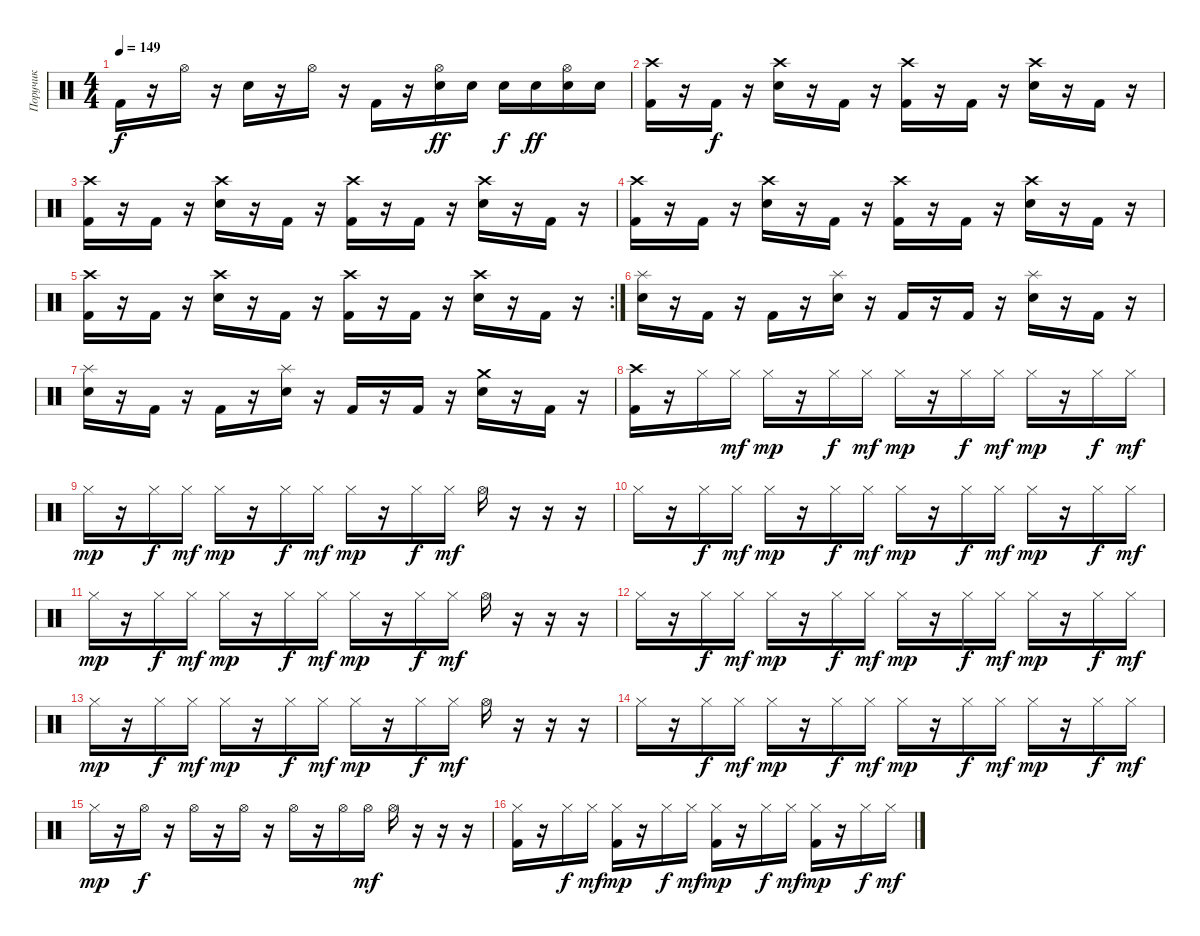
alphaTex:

\track ("Поручик" "Поручик") {instrument percussion}
\staff {score}
\articulation defaults
\ts (4 4)
\tempo 149
\clef neutral
\ks c "Kick (hit) 2".16{dy f}
r.16 "Hi-Hat (open)".16 r.16 "Snare (hit) 2".16 r.16 "Hi-Hat (open)".16 r.16 "Kick (hit) 2".16 r.16 ("Hi-Hat (open)" "Snare (hit) 2").16{dy ff} "Snare (hit) 2".16 "Snare (hit) 2".16{dy f} "Snare (hit) 2".16{dy ff} ("Hi-Hat (open)" "Snare (hit) 2").16 "Snare (hit) 2".16 |
("Crash high (hit)" "Kick (hit) 2").16 r.16 "Kick (hit) 2".16{dy f} r.16 ("Crash high (hit)" "Snare (hit) 2").16 r.16 "Kick (hit) 2".16 r.16 ("Crash high (hit)" "Kick (hit) 2").16 r.16 "Kick (hit) 2".16 r.16 ("Crash high (hit)" "Snare (hit) 2").16 r.16 "Kick (hit) 2".16 r.16 |
("Crash high (hit)" "Kick (hit) 2").16 r.16 "Kick (hit) 2".16 r.16 ("Crash high (hit)" "Snare (hit) 2").16 r.16 "Kick (hit) 2".16 r.16 ("Crash high (hit)" "Kick (hit) 2").16 r.16 "Kick (hit) 2".16 r.16 ("Crash high (hit)" "Snare (hit) 2").16 r.16 "Kick (hit) 2".16 r.16 |
("Crash high (hit)" "Kick (hit) 2").16 r.16 "Kick (hit) 2".16 r.16 ("Crash high (hit)" "Snare (hit) 2").16 r.16 "Kick (hit) 2".16 r.16 ("Crash high (hit)" "Kick (hit) 2").16 r.16 "Kick (hit) 2".16 r.16 ("Crash high (hit)" "Snare (hit) 2").16 r.16 "Kick (hit) 2".16 r.16 |
\rc 2
("Crash high (hit)" "Kick (hit) 2").16 r.16 "Kick (hit) 2".16 r.16 ("Crash high (hit)" "Snare (hit) 2").16 r.16 "Kick (hit) 2".16 r.16 ("Crash high (hit)" "Kick (hit) 2").16 r.16 "Kick (hit) 2".16 r.16 ("Crash high (hit)" "Snare (hit) 2").16 r.16 "Kick (hit) 2".16 r.16 |
("Splash (hit)" "Snare (hit) 2").16 r.16 "Kick (hit) 2".16 r.16 "Kick (hit) 2".16 r.16 ("Splash (hit)" "Snare (hit) 2").16 r.16 "Kick (hit) 2".16 r.16 "Kick (hit) 2".16 r.16 ("Splash (hit)" "Snare (hit) 2").16 r.16 "Kick (hit) 2".16 r.16 |
("Splash (hit)" "Snare (hit) 2").16 r.16 "Kick (hit) 2".16 r.16 "Kick (hit) 2".16 r.16 ("Splash (hit)" "Snare (hit) 2").16 r.16 "Kick (hit) 2".16 r.16 "Kick (hit) 2".16 r.16 ("Crash medium (hit)" "Snare (hit) 2").16 r.16 "Kick (hit) 2".16 r.16 |
("Crash high (hit)" "Kick (hit) 2").16 r.16 "Hi-Hat (closed)".16 "Hi-Hat (closed)".16{dy mf} "Hi-Hat (closed)".16{dy mp} r.16 "Hi-Hat (closed)".16{dy f} "Hi-Hat (closed)".16{dy mf} "Hi-Hat (closed)".16{dy mp} r.16 "Hi-Hat (closed)".16{dy f} "Hi-Hat (closed)".16{dy mf} "Hi-Hat (closed)".16{dy mp} r.16 "Hi-Hat (closed)".16{dy f} "Hi-Hat (closed)".16{dy mf} |
"Hi-Hat (closed)".16{dy mp} r.16 "Hi-Hat (closed)".16{dy f} "Hi-Hat (closed)".16{dy mf} "Hi-Hat (closed)".16{dy mp} r.16 "Hi-Hat (closed)".16{dy f} "Hi-Hat (closed)".16{dy mf} "Hi-Hat (closed)".16{dy mp} r.16 "Hi-Hat (closed)".16{dy f} "Hi-Hat (closed)".16{dy mf} "Hi-Hat (open)".16 r.16 r.16 r.16 |
"Hi-Hat (closed)".16 r.16 "Hi-Hat (closed)".16{dy f} "Hi-Hat (closed)".16{dy mf} "Hi-Hat (closed)".16{dy mp} r.16 "Hi-Hat (closed)".16{dy f} "Hi-Hat (closed)".16{dy mf} "Hi-Hat (closed)".16{dy mp} r.16 "Hi-Hat (closed)".16{dy f} "Hi-Hat (closed)".16{dy mf} "Hi-Hat (closed)".16{dy mp} r.16 "Hi-Hat (closed)".16{dy f} "Hi-Hat (closed)".16{dy mf} |
"Hi-Hat (closed)".16{dy mp} r.16 "Hi-Hat (closed)".16{dy f} "Hi-Hat (closed)".16{dy mf} "Hi-Hat (closed)".16{dy mp} r.16 "Hi-Hat (closed)".16{dy f} "Hi-Hat (closed)".16{dy mf} "Hi-Hat (closed)".16{dy mp} r.16 "Hi-Hat (closed)".16{dy f} "Hi-Hat (closed)".16{dy mf} "Hi-Hat (open)".16 r.16 r.16 r.16 |
"Hi-Hat (closed)".16 r.16 "Hi-Hat (closed)".16{dy f} "Hi-Hat (closed)".16{dy mf} "Hi-Hat (closed)".16{dy mp} r.16 "Hi-Hat (closed)".16{dy f} "Hi-Hat (closed)".16{dy mf} "Hi-Hat (closed)".16{dy mp} r.16 "Hi-Hat (closed)".16{dy f} "Hi-Hat (closed)".16{dy mf} "Hi-Hat (closed)".16{dy mp} r.16 "Hi-Hat (closed)".16{dy f} "Hi-Hat (closed)".16{dy mf} |
"Hi-Hat (closed)".16{dy mp} r.16 "Hi-Hat (closed)".16{dy f} "Hi-Hat (closed)".16{dy mf} "Hi-Hat (closed)".16{dy mp} r.16 "Hi-Hat (closed)".16{dy f} "Hi-Hat (closed)".16{dy mf} "Hi-Hat (closed)".16{dy mp} r.16 "Hi-Hat (closed)".16{dy f} "Hi-Hat (closed)".16{dy mf} "Hi-Hat (open)".16 r.16 r.16 r.16 |
"Hi-Hat (closed)".16 r.16 "Hi-Hat (closed)".16{dy f} "Hi-Hat (closed)".16{dy mf} "Hi-Hat (closed)".16{dy mp} r.16 "Hi-Hat (closed)".16{dy f} "Hi-Hat (closed)".16{dy mf} "Hi-Hat (closed)".16{dy mp} r.16 "Hi-Hat (closed)".16{dy f} "Hi-Hat (closed)".16{dy mf} "Hi-Hat (closed)".16{dy mp} r.16 "Hi-Hat (closed)".16{dy f} "Hi-Hat (closed)".16{dy mf} |
"Hi-Hat (closed)".16{dy mp} r.16 "Hi-Hat (open)".16{dy f} r.16 "Hi-Hat (open)".16 r.16 "Hi-Hat (open)".16 r.16 "Hi-Hat (open)".16 r.16 "Hi-Hat (open)".16 "Hi-Hat (open)".16{dy mf} "Hi-Hat (open)".16 r.16 r.16 r.16 |
("Hi-Hat (closed)" "Kick (hit) 2").16 r.16 "Hi-Hat (closed)".16{dy f} "Hi-Hat (closed)".16{dy mf} ("Hi-Hat (closed)" "Kick (hit) 2").16{dy mp} r.16 "Hi-Hat (closed)".16{dy f} "Hi-Hat (closed)".16{dy mf} ("Hi-Hat (closed)" "Kick (hit) 2").16{dy mp} r.16 "Hi-Hat (closed)".16{dy f} "Hi-Hat (closed)".16{dy mf} ("Hi-Hat (closed)" "Kick (hit) 2").16{dy mp} r.16 "Hi-Hat (closed)".16{dy f} "Hi-Hat (closed)".16{dy mf}
